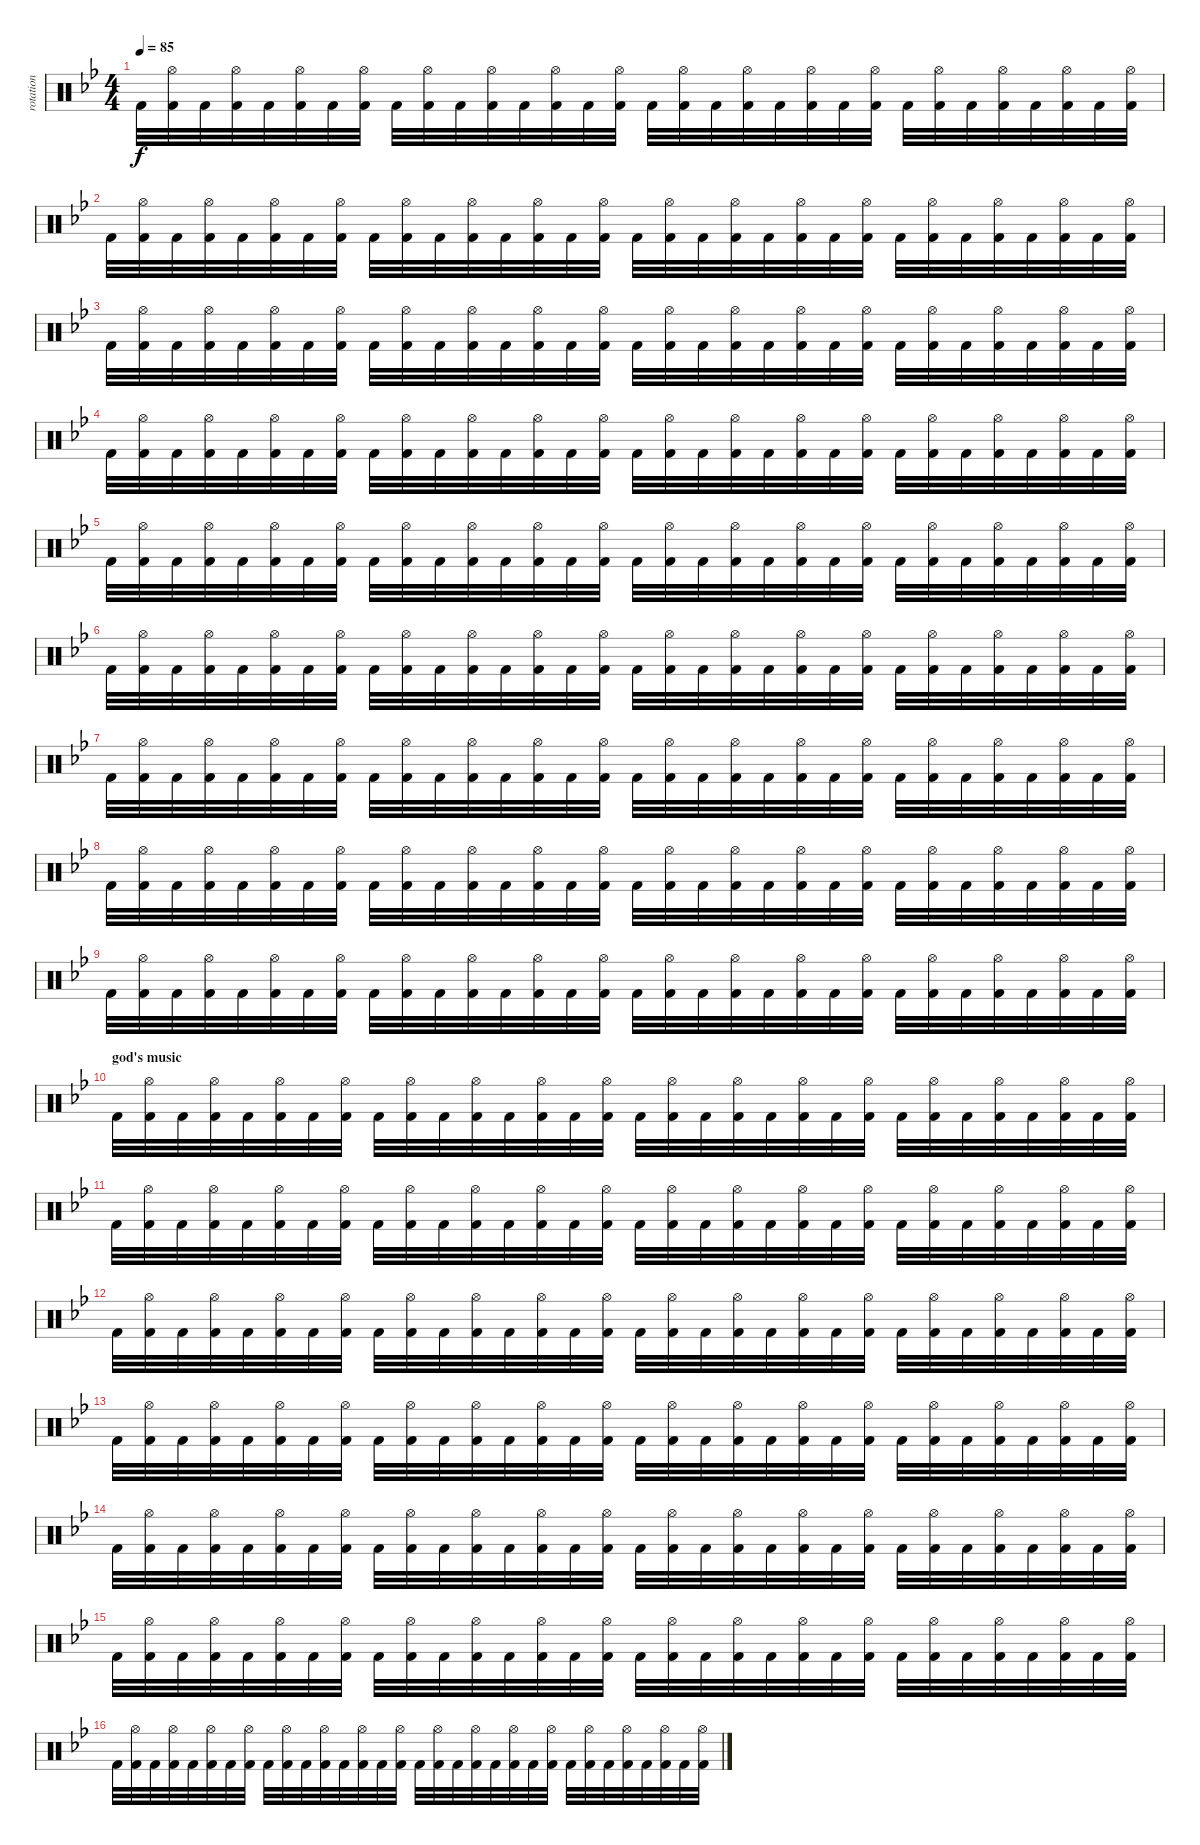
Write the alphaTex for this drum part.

\track ("rotation" "rotation") {instrument percussion}
\staff {score}
\articulation defaults
\ts (4 4)
\tempo 85
\clef neutral
\ks gminor "Kick (hit) 2".32{dy f}
("Hi-Hat (open)" "Kick (hit) 2").32 "Kick (hit) 2".32 ("Hi-Hat (open)" "Kick (hit) 2").32 "Kick (hit) 2".32 ("Hi-Hat (open)" "Kick (hit) 2").32 "Kick (hit) 2".32 ("Hi-Hat (open)" "Kick (hit) 2").32 "Kick (hit) 2".32 ("Hi-Hat (open)" "Kick (hit) 2").32 "Kick (hit) 2".32 ("Hi-Hat (open)" "Kick (hit) 2").32 "Kick (hit) 2".32 ("Hi-Hat (open)" "Kick (hit) 2").32 "Kick (hit) 2".32 ("Hi-Hat (open)" "Kick (hit) 2").32 "Kick (hit) 2".32 ("Hi-Hat (open)" "Kick (hit) 2").32 "Kick (hit) 2".32 ("Hi-Hat (open)" "Kick (hit) 2").32 "Kick (hit) 2".32 ("Hi-Hat (open)" "Kick (hit) 2").32 "Kick (hit) 2".32 ("Hi-Hat (open)" "Kick (hit) 2").32 "Kick (hit) 2".32 ("Hi-Hat (open)" "Kick (hit) 2").32 "Kick (hit) 2".32 ("Hi-Hat (open)" "Kick (hit) 2").32 "Kick (hit) 2".32 ("Hi-Hat (open)" "Kick (hit) 2").32 "Kick (hit) 2".32 ("Hi-Hat (open)" "Kick (hit) 2").32 |
"Kick (hit) 2".32 ("Hi-Hat (open)" "Kick (hit) 2").32 "Kick (hit) 2".32 ("Hi-Hat (open)" "Kick (hit) 2").32 "Kick (hit) 2".32 ("Hi-Hat (open)" "Kick (hit) 2").32 "Kick (hit) 2".32 ("Hi-Hat (open)" "Kick (hit) 2").32 "Kick (hit) 2".32 ("Hi-Hat (open)" "Kick (hit) 2").32 "Kick (hit) 2".32 ("Hi-Hat (open)" "Kick (hit) 2").32 "Kick (hit) 2".32 ("Hi-Hat (open)" "Kick (hit) 2").32 "Kick (hit) 2".32 ("Hi-Hat (open)" "Kick (hit) 2").32 "Kick (hit) 2".32 ("Hi-Hat (open)" "Kick (hit) 2").32 "Kick (hit) 2".32 ("Hi-Hat (open)" "Kick (hit) 2").32 "Kick (hit) 2".32 ("Hi-Hat (open)" "Kick (hit) 2").32 "Kick (hit) 2".32 ("Hi-Hat (open)" "Kick (hit) 2").32 "Kick (hit) 2".32 ("Hi-Hat (open)" "Kick (hit) 2").32 "Kick (hit) 2".32 ("Hi-Hat (open)" "Kick (hit) 2").32 "Kick (hit) 2".32 ("Hi-Hat (open)" "Kick (hit) 2").32 "Kick (hit) 2".32 ("Hi-Hat (open)" "Kick (hit) 2").32 |
"Kick (hit) 2".32 ("Hi-Hat (open)" "Kick (hit) 2").32 "Kick (hit) 2".32 ("Hi-Hat (open)" "Kick (hit) 2").32 "Kick (hit) 2".32 ("Hi-Hat (open)" "Kick (hit) 2").32 "Kick (hit) 2".32 ("Hi-Hat (open)" "Kick (hit) 2").32 "Kick (hit) 2".32 ("Hi-Hat (open)" "Kick (hit) 2").32 "Kick (hit) 2".32 ("Hi-Hat (open)" "Kick (hit) 2").32 "Kick (hit) 2".32 ("Hi-Hat (open)" "Kick (hit) 2").32 "Kick (hit) 2".32 ("Hi-Hat (open)" "Kick (hit) 2").32 "Kick (hit) 2".32 ("Hi-Hat (open)" "Kick (hit) 2").32 "Kick (hit) 2".32 ("Hi-Hat (open)" "Kick (hit) 2").32 "Kick (hit) 2".32 ("Hi-Hat (open)" "Kick (hit) 2").32 "Kick (hit) 2".32 ("Hi-Hat (open)" "Kick (hit) 2").32 "Kick (hit) 2".32 ("Hi-Hat (open)" "Kick (hit) 2").32 "Kick (hit) 2".32 ("Hi-Hat (open)" "Kick (hit) 2").32 "Kick (hit) 2".32 ("Hi-Hat (open)" "Kick (hit) 2").32 "Kick (hit) 2".32 ("Hi-Hat (open)" "Kick (hit) 2").32 |
"Kick (hit) 2".32 ("Hi-Hat (open)" "Kick (hit) 2").32 "Kick (hit) 2".32 ("Hi-Hat (open)" "Kick (hit) 2").32 "Kick (hit) 2".32 ("Hi-Hat (open)" "Kick (hit) 2").32 "Kick (hit) 2".32 ("Hi-Hat (open)" "Kick (hit) 2").32 "Kick (hit) 2".32 ("Hi-Hat (open)" "Kick (hit) 2").32 "Kick (hit) 2".32 ("Hi-Hat (open)" "Kick (hit) 2").32 "Kick (hit) 2".32 ("Hi-Hat (open)" "Kick (hit) 2").32 "Kick (hit) 2".32 ("Hi-Hat (open)" "Kick (hit) 2").32 "Kick (hit) 2".32 ("Hi-Hat (open)" "Kick (hit) 2").32 "Kick (hit) 2".32 ("Hi-Hat (open)" "Kick (hit) 2").32 "Kick (hit) 2".32 ("Hi-Hat (open)" "Kick (hit) 2").32 "Kick (hit) 2".32 ("Hi-Hat (open)" "Kick (hit) 2").32 "Kick (hit) 2".32 ("Hi-Hat (open)" "Kick (hit) 2").32 "Kick (hit) 2".32 ("Hi-Hat (open)" "Kick (hit) 2").32 "Kick (hit) 2".32 ("Hi-Hat (open)" "Kick (hit) 2").32 "Kick (hit) 2".32 ("Hi-Hat (open)" "Kick (hit) 2").32 |
"Kick (hit) 2".32 ("Hi-Hat (open)" "Kick (hit) 2").32 "Kick (hit) 2".32 ("Hi-Hat (open)" "Kick (hit) 2").32 "Kick (hit) 2".32 ("Hi-Hat (open)" "Kick (hit) 2").32 "Kick (hit) 2".32 ("Hi-Hat (open)" "Kick (hit) 2").32 "Kick (hit) 2".32 ("Hi-Hat (open)" "Kick (hit) 2").32 "Kick (hit) 2".32 ("Hi-Hat (open)" "Kick (hit) 2").32 "Kick (hit) 2".32 ("Hi-Hat (open)" "Kick (hit) 2").32 "Kick (hit) 2".32 ("Hi-Hat (open)" "Kick (hit) 2").32 "Kick (hit) 2".32 ("Hi-Hat (open)" "Kick (hit) 2").32 "Kick (hit) 2".32 ("Hi-Hat (open)" "Kick (hit) 2").32 "Kick (hit) 2".32 ("Hi-Hat (open)" "Kick (hit) 2").32 "Kick (hit) 2".32 ("Hi-Hat (open)" "Kick (hit) 2").32 "Kick (hit) 2".32 ("Hi-Hat (open)" "Kick (hit) 2").32 "Kick (hit) 2".32 ("Hi-Hat (open)" "Kick (hit) 2").32 "Kick (hit) 2".32 ("Hi-Hat (open)" "Kick (hit) 2").32 "Kick (hit) 2".32 ("Hi-Hat (open)" "Kick (hit) 2").32 |
"Kick (hit) 2".32 ("Hi-Hat (open)" "Kick (hit) 2").32 "Kick (hit) 2".32 ("Hi-Hat (open)" "Kick (hit) 2").32 "Kick (hit) 2".32 ("Hi-Hat (open)" "Kick (hit) 2").32 "Kick (hit) 2".32 ("Hi-Hat (open)" "Kick (hit) 2").32 "Kick (hit) 2".32 ("Hi-Hat (open)" "Kick (hit) 2").32 "Kick (hit) 2".32 ("Hi-Hat (open)" "Kick (hit) 2").32 "Kick (hit) 2".32 ("Hi-Hat (open)" "Kick (hit) 2").32 "Kick (hit) 2".32 ("Hi-Hat (open)" "Kick (hit) 2").32 "Kick (hit) 2".32 ("Hi-Hat (open)" "Kick (hit) 2").32 "Kick (hit) 2".32 ("Hi-Hat (open)" "Kick (hit) 2").32 "Kick (hit) 2".32 ("Hi-Hat (open)" "Kick (hit) 2").32 "Kick (hit) 2".32 ("Hi-Hat (open)" "Kick (hit) 2").32 "Kick (hit) 2".32 ("Hi-Hat (open)" "Kick (hit) 2").32 "Kick (hit) 2".32 ("Hi-Hat (open)" "Kick (hit) 2").32 "Kick (hit) 2".32 ("Hi-Hat (open)" "Kick (hit) 2").32 "Kick (hit) 2".32 ("Hi-Hat (open)" "Kick (hit) 2").32 |
"Kick (hit) 2".32 ("Hi-Hat (open)" "Kick (hit) 2").32 "Kick (hit) 2".32 ("Hi-Hat (open)" "Kick (hit) 2").32 "Kick (hit) 2".32 ("Hi-Hat (open)" "Kick (hit) 2").32 "Kick (hit) 2".32 ("Hi-Hat (open)" "Kick (hit) 2").32 "Kick (hit) 2".32 ("Hi-Hat (open)" "Kick (hit) 2").32 "Kick (hit) 2".32 ("Hi-Hat (open)" "Kick (hit) 2").32 "Kick (hit) 2".32 ("Hi-Hat (open)" "Kick (hit) 2").32 "Kick (hit) 2".32 ("Hi-Hat (open)" "Kick (hit) 2").32 "Kick (hit) 2".32 ("Hi-Hat (open)" "Kick (hit) 2").32 "Kick (hit) 2".32 ("Hi-Hat (open)" "Kick (hit) 2").32 "Kick (hit) 2".32 ("Hi-Hat (open)" "Kick (hit) 2").32 "Kick (hit) 2".32 ("Hi-Hat (open)" "Kick (hit) 2").32 "Kick (hit) 2".32 ("Hi-Hat (open)" "Kick (hit) 2").32 "Kick (hit) 2".32 ("Hi-Hat (open)" "Kick (hit) 2").32 "Kick (hit) 2".32 ("Hi-Hat (open)" "Kick (hit) 2").32 "Kick (hit) 2".32 ("Hi-Hat (open)" "Kick (hit) 2").32 |
"Kick (hit) 2".32 ("Hi-Hat (open)" "Kick (hit) 2").32 "Kick (hit) 2".32 ("Hi-Hat (open)" "Kick (hit) 2").32 "Kick (hit) 2".32 ("Hi-Hat (open)" "Kick (hit) 2").32 "Kick (hit) 2".32 ("Hi-Hat (open)" "Kick (hit) 2").32 "Kick (hit) 2".32 ("Hi-Hat (open)" "Kick (hit) 2").32 "Kick (hit) 2".32 ("Hi-Hat (open)" "Kick (hit) 2").32 "Kick (hit) 2".32 ("Hi-Hat (open)" "Kick (hit) 2").32 "Kick (hit) 2".32 ("Hi-Hat (open)" "Kick (hit) 2").32 "Kick (hit) 2".32 ("Hi-Hat (open)" "Kick (hit) 2").32 "Kick (hit) 2".32 ("Hi-Hat (open)" "Kick (hit) 2").32 "Kick (hit) 2".32 ("Hi-Hat (open)" "Kick (hit) 2").32 "Kick (hit) 2".32 ("Hi-Hat (open)" "Kick (hit) 2").32 "Kick (hit) 2".32 ("Hi-Hat (open)" "Kick (hit) 2").32 "Kick (hit) 2".32 ("Hi-Hat (open)" "Kick (hit) 2").32 "Kick (hit) 2".32 ("Hi-Hat (open)" "Kick (hit) 2").32 "Kick (hit) 2".32 ("Hi-Hat (open)" "Kick (hit) 2").32 |
"Kick (hit) 2".32 ("Hi-Hat (open)" "Kick (hit) 2").32 "Kick (hit) 2".32 ("Hi-Hat (open)" "Kick (hit) 2").32 "Kick (hit) 2".32 ("Hi-Hat (open)" "Kick (hit) 2").32 "Kick (hit) 2".32 ("Hi-Hat (open)" "Kick (hit) 2").32 "Kick (hit) 2".32 ("Hi-Hat (open)" "Kick (hit) 2").32 "Kick (hit) 2".32 ("Hi-Hat (open)" "Kick (hit) 2").32 "Kick (hit) 2".32 ("Hi-Hat (open)" "Kick (hit) 2").32 "Kick (hit) 2".32 ("Hi-Hat (open)" "Kick (hit) 2").32 "Kick (hit) 2".32 ("Hi-Hat (open)" "Kick (hit) 2").32 "Kick (hit) 2".32 ("Hi-Hat (open)" "Kick (hit) 2").32 "Kick (hit) 2".32 ("Hi-Hat (open)" "Kick (hit) 2").32 "Kick (hit) 2".32 ("Hi-Hat (open)" "Kick (hit) 2").32 "Kick (hit) 2".32 ("Hi-Hat (open)" "Kick (hit) 2").32 "Kick (hit) 2".32 ("Hi-Hat (open)" "Kick (hit) 2").32 "Kick (hit) 2".32 ("Hi-Hat (open)" "Kick (hit) 2").32 "Kick (hit) 2".32 ("Hi-Hat (open)" "Kick (hit) 2").32 |
\section ("" "god's music")
"Kick (hit) 2".32 ("Hi-Hat (open)" "Kick (hit) 2").32 "Kick (hit) 2".32 ("Hi-Hat (open)" "Kick (hit) 2").32 "Kick (hit) 2".32 ("Hi-Hat (open)" "Kick (hit) 2").32 "Kick (hit) 2".32 ("Hi-Hat (open)" "Kick (hit) 2").32 "Kick (hit) 2".32 ("Hi-Hat (open)" "Kick (hit) 2").32 "Kick (hit) 2".32 ("Hi-Hat (open)" "Kick (hit) 2").32 "Kick (hit) 2".32 ("Hi-Hat (open)" "Kick (hit) 2").32 "Kick (hit) 2".32 ("Hi-Hat (open)" "Kick (hit) 2").32 "Kick (hit) 2".32 ("Hi-Hat (open)" "Kick (hit) 2").32 "Kick (hit) 2".32 ("Hi-Hat (open)" "Kick (hit) 2").32 "Kick (hit) 2".32 ("Hi-Hat (open)" "Kick (hit) 2").32 "Kick (hit) 2".32 ("Hi-Hat (open)" "Kick (hit) 2").32 "Kick (hit) 2".32 ("Hi-Hat (open)" "Kick (hit) 2").32 "Kick (hit) 2".32 ("Hi-Hat (open)" "Kick (hit) 2").32 "Kick (hit) 2".32 ("Hi-Hat (open)" "Kick (hit) 2").32 "Kick (hit) 2".32 ("Hi-Hat (open)" "Kick (hit) 2").32 |
"Kick (hit) 2".32 ("Hi-Hat (open)" "Kick (hit) 2").32 "Kick (hit) 2".32 ("Hi-Hat (open)" "Kick (hit) 2").32 "Kick (hit) 2".32 ("Hi-Hat (open)" "Kick (hit) 2").32 "Kick (hit) 2".32 ("Hi-Hat (open)" "Kick (hit) 2").32 "Kick (hit) 2".32 ("Hi-Hat (open)" "Kick (hit) 2").32 "Kick (hit) 2".32 ("Hi-Hat (open)" "Kick (hit) 2").32 "Kick (hit) 2".32 ("Hi-Hat (open)" "Kick (hit) 2").32 "Kick (hit) 2".32 ("Hi-Hat (open)" "Kick (hit) 2").32 "Kick (hit) 2".32 ("Hi-Hat (open)" "Kick (hit) 2").32 "Kick (hit) 2".32 ("Hi-Hat (open)" "Kick (hit) 2").32 "Kick (hit) 2".32 ("Hi-Hat (open)" "Kick (hit) 2").32 "Kick (hit) 2".32 ("Hi-Hat (open)" "Kick (hit) 2").32 "Kick (hit) 2".32 ("Hi-Hat (open)" "Kick (hit) 2").32 "Kick (hit) 2".32 ("Hi-Hat (open)" "Kick (hit) 2").32 "Kick (hit) 2".32 ("Hi-Hat (open)" "Kick (hit) 2").32 "Kick (hit) 2".32 ("Hi-Hat (open)" "Kick (hit) 2").32 |
"Kick (hit) 2".32 ("Hi-Hat (open)" "Kick (hit) 2").32 "Kick (hit) 2".32 ("Hi-Hat (open)" "Kick (hit) 2").32 "Kick (hit) 2".32 ("Hi-Hat (open)" "Kick (hit) 2").32 "Kick (hit) 2".32 ("Hi-Hat (open)" "Kick (hit) 2").32 "Kick (hit) 2".32 ("Hi-Hat (open)" "Kick (hit) 2").32 "Kick (hit) 2".32 ("Hi-Hat (open)" "Kick (hit) 2").32 "Kick (hit) 2".32 ("Hi-Hat (open)" "Kick (hit) 2").32 "Kick (hit) 2".32 ("Hi-Hat (open)" "Kick (hit) 2").32 "Kick (hit) 2".32 ("Hi-Hat (open)" "Kick (hit) 2").32 "Kick (hit) 2".32 ("Hi-Hat (open)" "Kick (hit) 2").32 "Kick (hit) 2".32 ("Hi-Hat (open)" "Kick (hit) 2").32 "Kick (hit) 2".32 ("Hi-Hat (open)" "Kick (hit) 2").32 "Kick (hit) 2".32 ("Hi-Hat (open)" "Kick (hit) 2").32 "Kick (hit) 2".32 ("Hi-Hat (open)" "Kick (hit) 2").32 "Kick (hit) 2".32 ("Hi-Hat (open)" "Kick (hit) 2").32 "Kick (hit) 2".32 ("Hi-Hat (open)" "Kick (hit) 2").32 |
"Kick (hit) 2".32 ("Hi-Hat (open)" "Kick (hit) 2").32 "Kick (hit) 2".32 ("Hi-Hat (open)" "Kick (hit) 2").32 "Kick (hit) 2".32 ("Hi-Hat (open)" "Kick (hit) 2").32 "Kick (hit) 2".32 ("Hi-Hat (open)" "Kick (hit) 2").32 "Kick (hit) 2".32 ("Hi-Hat (open)" "Kick (hit) 2").32 "Kick (hit) 2".32 ("Hi-Hat (open)" "Kick (hit) 2").32 "Kick (hit) 2".32 ("Hi-Hat (open)" "Kick (hit) 2").32 "Kick (hit) 2".32 ("Hi-Hat (open)" "Kick (hit) 2").32 "Kick (hit) 2".32 ("Hi-Hat (open)" "Kick (hit) 2").32 "Kick (hit) 2".32 ("Hi-Hat (open)" "Kick (hit) 2").32 "Kick (hit) 2".32 ("Hi-Hat (open)" "Kick (hit) 2").32 "Kick (hit) 2".32 ("Hi-Hat (open)" "Kick (hit) 2").32 "Kick (hit) 2".32 ("Hi-Hat (open)" "Kick (hit) 2").32 "Kick (hit) 2".32 ("Hi-Hat (open)" "Kick (hit) 2").32 "Kick (hit) 2".32 ("Hi-Hat (open)" "Kick (hit) 2").32 "Kick (hit) 2".32 ("Hi-Hat (open)" "Kick (hit) 2").32 |
"Kick (hit) 2".32 ("Hi-Hat (open)" "Kick (hit) 2").32 "Kick (hit) 2".32 ("Hi-Hat (open)" "Kick (hit) 2").32 "Kick (hit) 2".32 ("Hi-Hat (open)" "Kick (hit) 2").32 "Kick (hit) 2".32 ("Hi-Hat (open)" "Kick (hit) 2").32 "Kick (hit) 2".32 ("Hi-Hat (open)" "Kick (hit) 2").32 "Kick (hit) 2".32 ("Hi-Hat (open)" "Kick (hit) 2").32 "Kick (hit) 2".32 ("Hi-Hat (open)" "Kick (hit) 2").32 "Kick (hit) 2".32 ("Hi-Hat (open)" "Kick (hit) 2").32 "Kick (hit) 2".32 ("Hi-Hat (open)" "Kick (hit) 2").32 "Kick (hit) 2".32 ("Hi-Hat (open)" "Kick (hit) 2").32 "Kick (hit) 2".32 ("Hi-Hat (open)" "Kick (hit) 2").32 "Kick (hit) 2".32 ("Hi-Hat (open)" "Kick (hit) 2").32 "Kick (hit) 2".32 ("Hi-Hat (open)" "Kick (hit) 2").32 "Kick (hit) 2".32 ("Hi-Hat (open)" "Kick (hit) 2").32 "Kick (hit) 2".32 ("Hi-Hat (open)" "Kick (hit) 2").32 "Kick (hit) 2".32 ("Hi-Hat (open)" "Kick (hit) 2").32 |
"Kick (hit) 2".32 ("Hi-Hat (open)" "Kick (hit) 2").32 "Kick (hit) 2".32 ("Hi-Hat (open)" "Kick (hit) 2").32 "Kick (hit) 2".32 ("Hi-Hat (open)" "Kick (hit) 2").32 "Kick (hit) 2".32 ("Hi-Hat (open)" "Kick (hit) 2").32 "Kick (hit) 2".32 ("Hi-Hat (open)" "Kick (hit) 2").32 "Kick (hit) 2".32 ("Hi-Hat (open)" "Kick (hit) 2").32 "Kick (hit) 2".32 ("Hi-Hat (open)" "Kick (hit) 2").32 "Kick (hit) 2".32 ("Hi-Hat (open)" "Kick (hit) 2").32 "Kick (hit) 2".32 ("Hi-Hat (open)" "Kick (hit) 2").32 "Kick (hit) 2".32 ("Hi-Hat (open)" "Kick (hit) 2").32 "Kick (hit) 2".32 ("Hi-Hat (open)" "Kick (hit) 2").32 "Kick (hit) 2".32 ("Hi-Hat (open)" "Kick (hit) 2").32 "Kick (hit) 2".32 ("Hi-Hat (open)" "Kick (hit) 2").32 "Kick (hit) 2".32 ("Hi-Hat (open)" "Kick (hit) 2").32 "Kick (hit) 2".32 ("Hi-Hat (open)" "Kick (hit) 2").32 "Kick (hit) 2".32 ("Hi-Hat (open)" "Kick (hit) 2").32 |
"Kick (hit) 2".32 ("Hi-Hat (open)" "Kick (hit) 2").32 "Kick (hit) 2".32 ("Hi-Hat (open)" "Kick (hit) 2").32 "Kick (hit) 2".32 ("Hi-Hat (open)" "Kick (hit) 2").32 "Kick (hit) 2".32 ("Hi-Hat (open)" "Kick (hit) 2").32 "Kick (hit) 2".32 ("Hi-Hat (open)" "Kick (hit) 2").32 "Kick (hit) 2".32 ("Hi-Hat (open)" "Kick (hit) 2").32 "Kick (hit) 2".32 ("Hi-Hat (open)" "Kick (hit) 2").32 "Kick (hit) 2".32 ("Hi-Hat (open)" "Kick (hit) 2").32 "Kick (hit) 2".32 ("Hi-Hat (open)" "Kick (hit) 2").32 "Kick (hit) 2".32 ("Hi-Hat (open)" "Kick (hit) 2").32 "Kick (hit) 2".32 ("Hi-Hat (open)" "Kick (hit) 2").32 "Kick (hit) 2".32 ("Hi-Hat (open)" "Kick (hit) 2").32 "Kick (hit) 2".32 ("Hi-Hat (open)" "Kick (hit) 2").32 "Kick (hit) 2".32 ("Hi-Hat (open)" "Kick (hit) 2").32 "Kick (hit) 2".32 ("Hi-Hat (open)" "Kick (hit) 2").32 "Kick (hit) 2".32 ("Hi-Hat (open)" "Kick (hit) 2").32
